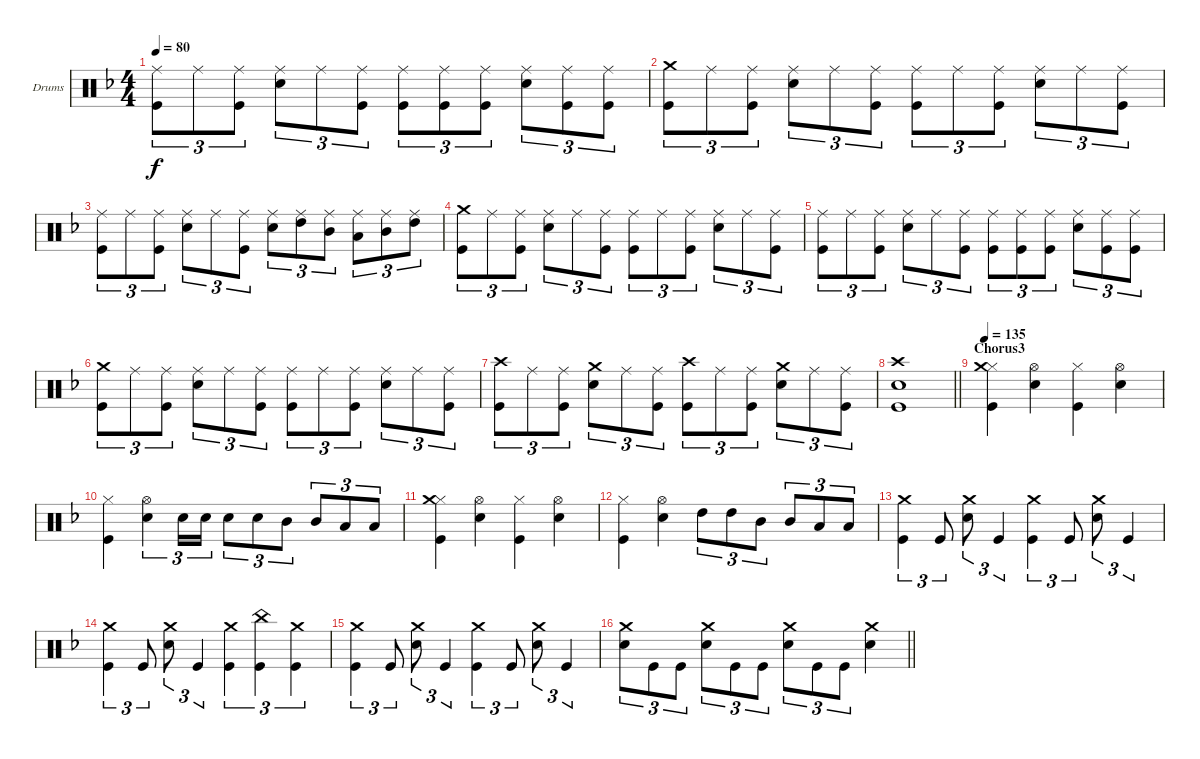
\bracketExtendMode groupsimilarinstruments
\firstSystemTrackNameOrientation horizontal
\otherSystemsTrackNameOrientation horizontal
\track ("drums (Anton Zulganov)" "Drums") {instrument percussion}
\staff {score}
\articulation defaults
\ts (4 4)
\tempo 80
\clef neutral
\ks dminor
("Kick (hit)" "Ride (middle)").8{tu (3 2) dy f} "Ride (middle)".8{tu (3 2)} ("Ride (middle)" "Kick (hit)").8{tu (3 2)} ("Ride (middle)" "Snare (hit) 2").8{tu (3 2)} "Ride (middle)".8{tu (3 2)} ("Ride (middle)" "Kick (hit)").8{tu (3 2)} ("Ride (middle)" "Kick (hit)").8{tu (3 2)} ("Ride (middle)" "Kick (hit)").8{tu (3 2)} ("Ride (middle)" "Kick (hit)").8{tu (3 2)} ("Ride (middle)" "Snare (hit) 2").8{tu (3 2)} ("Ride (middle)" "Kick (hit)").8{tu (3 2)} ("Ride (middle)" "Kick (hit)").8{tu (3 2)} |
("Kick (hit)" "Crash medium (hit)").8{tu (3 2)} "Ride (middle)".8{tu (3 2)} ("Ride (middle)" "Kick (hit)").8{tu (3 2)} ("Ride (middle)" "Snare (hit) 2").8{tu (3 2)} "Ride (middle)".8{tu (3 2)} ("Ride (middle)" "Kick (hit)").8{tu (3 2)} ("Ride (middle)" "Kick (hit)").8{tu (3 2)} "Ride (middle)".8{tu (3 2)} ("Ride (middle)" "Kick (hit)").8{tu (3 2)} ("Ride (middle)" "Snare (hit) 2").8{tu (3 2)} "Ride (middle)".8{tu (3 2)} ("Ride (middle)" "Kick (hit)").8{tu (3 2)} |
("Kick (hit)" "Ride (middle)").8{tu (3 2)} "Ride (middle)".8{tu (3 2)} ("Ride (middle)" "Kick (hit)").8{tu (3 2)} ("Ride (middle)" "Snare (hit) 2").8{tu (3 2)} "Ride (middle)".8{tu (3 2)} ("Ride (middle)" "Kick (hit)").8{tu (3 2)} ("Ride (middle)" "Snare (hit) 2").8{tu (3 2)} ("Ride (middle)" "High Tom (hit)").8{tu (3 2)} ("Ride (middle)" "Mid Tom (hit)").8{tu (3 2)} ("Ride (middle)" "Low Tom (hit)").8{tu (3 2)} ("Ride (middle)" "Mid Tom (hit)").8{tu (3 2)} ("Ride (middle)" "High Tom (hit)").8{tu (3 2)} |
("Kick (hit)" "Crash medium (hit)").8{tu (3 2)} "Ride (middle)".8{tu (3 2)} ("Ride (middle)" "Kick (hit)").8{tu (3 2)} ("Ride (middle)" "Snare (hit) 2").8{tu (3 2)} "Ride (middle)".8{tu (3 2)} ("Ride (middle)" "Kick (hit)").8{tu (3 2)} ("Ride (middle)" "Kick (hit)").8{tu (3 2)} "Ride (middle)".8{tu (3 2)} ("Ride (middle)" "Kick (hit)").8{tu (3 2)} ("Ride (middle)" "Snare (hit) 2").8{tu (3 2)} "Ride (middle)".8{tu (3 2)} ("Ride (middle)" "Kick (hit)").8{tu (3 2)} |
("Kick (hit)" "Ride (middle)").8{tu (3 2)} "Ride (middle)".8{tu (3 2)} ("Ride (middle)" "Kick (hit)").8{tu (3 2)} ("Snare (hit) 2" "Ride (middle)").8{tu (3 2)} "Ride (middle)".8{tu (3 2)} ("Ride (middle)" "Kick (hit)").8{tu (3 2)} ("Kick (hit)" "Ride (middle)").8{tu (3 2)} ("Ride (middle)" "Kick (hit)").8{tu (3 2)} ("Ride (middle)" "Kick (hit)").8{tu (3 2)} ("Snare (hit) 2" "Ride (middle)").8{tu (3 2)} ("Ride (middle)" "Kick (hit)").8{tu (3 2)} ("Ride (middle)" "Kick (hit)").8{tu (3 2)} |
("Kick (hit)" "Crash medium (hit)").8{tu (3 2)} "Ride (middle)".8{tu (3 2)} ("Ride (middle)" "Kick (hit)").8{tu (3 2)} ("Ride (middle)" "Snare (hit) 2").8{tu (3 2)} "Ride (middle)".8{tu (3 2)} ("Ride (middle)" "Kick (hit)").8{tu (3 2)} ("Ride (middle)" "Kick (hit)").8{tu (3 2)} "Ride (middle)".8{tu (3 2)} ("Ride (middle)" "Kick (hit)").8{tu (3 2)} ("Ride (middle)" "Snare (hit) 2").8{tu (3 2)} "Ride (middle)".8{tu (3 2)} ("Ride (middle)" "Kick (hit)").8{tu (3 2)} |
("Kick (hit)" "Crash high (hit)").8{tu (3 2)} "Ride (middle)".8{tu (3 2)} ("Ride (middle)" "Kick (hit)").8{tu (3 2)} ("Snare (hit) 2" "Crash medium (hit)").8{tu (3 2)} "Ride (middle)".8{tu (3 2)} ("Ride (middle)" "Kick (hit)").8{tu (3 2)} ("Kick (hit)" "Crash high (hit)").8{tu (3 2)} "Ride (middle)".8{tu (3 2)} ("Kick (hit)" "Ride (middle)").8{tu (3 2)} ("Snare (hit) 2" "Crash medium (hit)").8{tu (3 2)} "Ride (middle)".8{tu (3 2)} ("Kick (hit)" "Ride (middle)").8{tu (3 2)} |
\barLineRight lightlight
("Snare (hit) 2" "Kick (hit)" "Crash high (hit)").1 |
\section ("" "Chorus3")
\tempo 135
("Hi-Hat (closed)" "Kick (hit)" "Crash medium (hit)").4 ("Hi-Hat (open)" "Snare (hit) 2").4 ("Hi-Hat (closed)" "Kick (hit)").4 ("Hi-Hat (open)" "Snare (hit) 2").4 |
("Hi-Hat (closed)" "Kick (hit)").4 ("Hi-Hat (open)" "Snare (hit) 2").4{tu (3 2)} "Snare (hit) 2".16{tu (3 2)} "Snare (hit) 2".16{tu (3 2)} "Snare (hit) 2".8{tu (3 2)} "Snare (hit) 2".8{tu (3 2)} "Mid Tom (hit)".8{tu (3 2)} "Mid Tom (hit)".8{tu (3 2)} "Low Tom (hit)".8{tu (3 2)} "Low Tom (hit)".8{tu (3 2)} |
("Hi-Hat (closed)" "Kick (hit)" "Crash medium (hit)").4 ("Hi-Hat (open)" "Snare (hit) 2").4 ("Hi-Hat (closed)" "Kick (hit)").4 ("Hi-Hat (open)" "Snare (hit) 2").4 |
("Hi-Hat (closed)" "Kick (hit)").4 ("Hi-Hat (open)" "Snare (hit) 2").4 "High Tom (hit)".8{tu (3 2)} "High Tom (hit)".8{tu (3 2)} "Mid Tom (hit)".8{tu (3 2)} "Mid Tom (hit)".8{tu (3 2)} "Low Tom (hit)".8{tu (3 2)} "Low Tom (hit)".8{tu (3 2)} |
("Crash medium (hit)" "Kick (hit)").4{tu (3 2)} "Kick (hit)".8{tu (3 2)} ("Snare (hit) 2" "Crash medium (hit)").8{tu (3 2)} "Kick (hit)".4{tu (3 2)} ("Kick (hit)" "Crash medium (hit)").4{tu (3 2)} "Kick (hit)".8{tu (3 2)} ("Snare (hit) 2" "Crash medium (hit)").8{tu (3 2)} "Kick (hit)".4{tu (3 2)} |
("Kick (hit)" "Crash medium (hit)").4{tu (3 2)} "Kick (hit)".8{tu (3 2)} ("Snare (hit) 2" "Crash medium (hit)").8{tu (3 2)} "Kick (hit)".4{tu (3 2)} ("Crash medium (hit)" "Kick (hit)").4{tu (3 2)} ("Kick (hit)" "China (hit)").4{tu (3 2)} ("Kick (hit)" "Crash medium (hit)").4{tu (3 2)} |
("Crash medium (hit)" "Kick (hit)").4{tu (3 2)} "Kick (hit)".8{tu (3 2)} ("Snare (hit) 2" "Crash medium (hit)").8{tu (3 2)} "Kick (hit)".4{tu (3 2)} ("Kick (hit)" "Crash medium (hit)").4{tu (3 2)} "Kick (hit)".8{tu (3 2)} ("Snare (hit) 2" "Crash medium (hit)").8{tu (3 2)} "Kick (hit)".4{tu (3 2)} |
\barLineRight lightlight
("Crash medium (hit)" "Snare (hit) 2").8{tu (3 2)} "Kick (hit)".8{tu (3 2)} "Kick (hit)".8{tu (3 2)} ("Snare (hit) 2" "Crash medium (hit)").8{tu (3 2)} "Kick (hit)".8{tu (3 2)} "Kick (hit)".8{tu (3 2)} ("Snare (hit) 2" "Crash medium (hit)").8{tu (3 2)} "Kick (hit)".8{tu (3 2)} "Kick (hit)".8{tu (3 2)} ("Snare (hit) 2" "Crash medium (hit)").4
